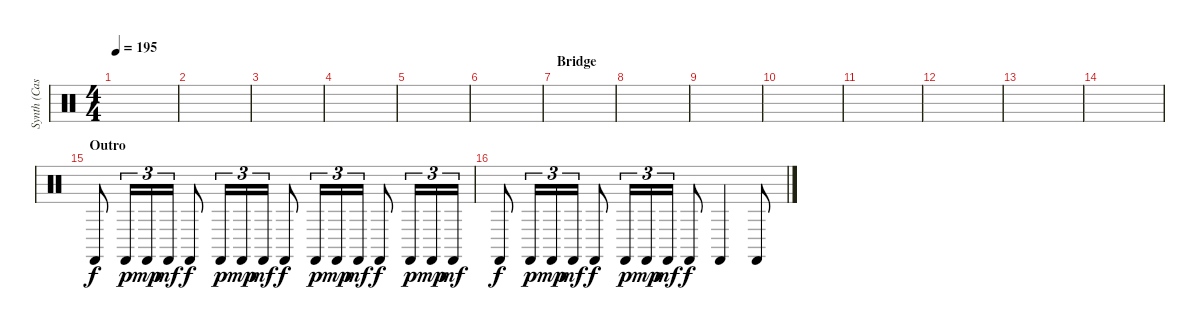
\track ("Synth (Castinets)" "Synth (Cas") {instrument percussion}
\staff {score}
\articulation defaults
\ts (4 4)
\tempo 195
\clef neutral
\ks c
|
|
|
|
|
|
\section ("" "Bridge")
|
|
|
|
|
|
|
|
\section ("" "Outro")
"Castanets (hit)".8 "Castanets (hit)".16{tu (3 2) dy p} "Castanets (hit)".16{tu (3 2) dy mp} "Castanets (hit)".16{tu (3 2) dy mf} "Castanets (hit)".8{dy f} "Castanets (hit)".16{tu (3 2) dy p} "Castanets (hit)".16{tu (3 2) dy mp} "Castanets (hit)".16{tu (3 2) dy mf} "Castanets (hit)".8{dy f} "Castanets (hit)".16{tu (3 2) dy p} "Castanets (hit)".16{tu (3 2) dy mp} "Castanets (hit)".16{tu (3 2) dy mf} "Castanets (hit)".8{dy f} "Castanets (hit)".16{tu (3 2) dy p} "Castanets (hit)".16{tu (3 2) dy mp} "Castanets (hit)".16{tu (3 2) dy mf} |
"Castanets (hit)".8{dy f} "Castanets (hit)".16{tu (3 2) dy p} "Castanets (hit)".16{tu (3 2) dy mp} "Castanets (hit)".16{tu (3 2) dy mf} "Castanets (hit)".8{dy f} "Castanets (hit)".16{tu (3 2) dy p} "Castanets (hit)".16{tu (3 2) dy mp} "Castanets (hit)".16{tu (3 2) dy mf} "Castanets (hit)".8{dy f} "Castanets (hit)".4 "Castanets (hit)".8
